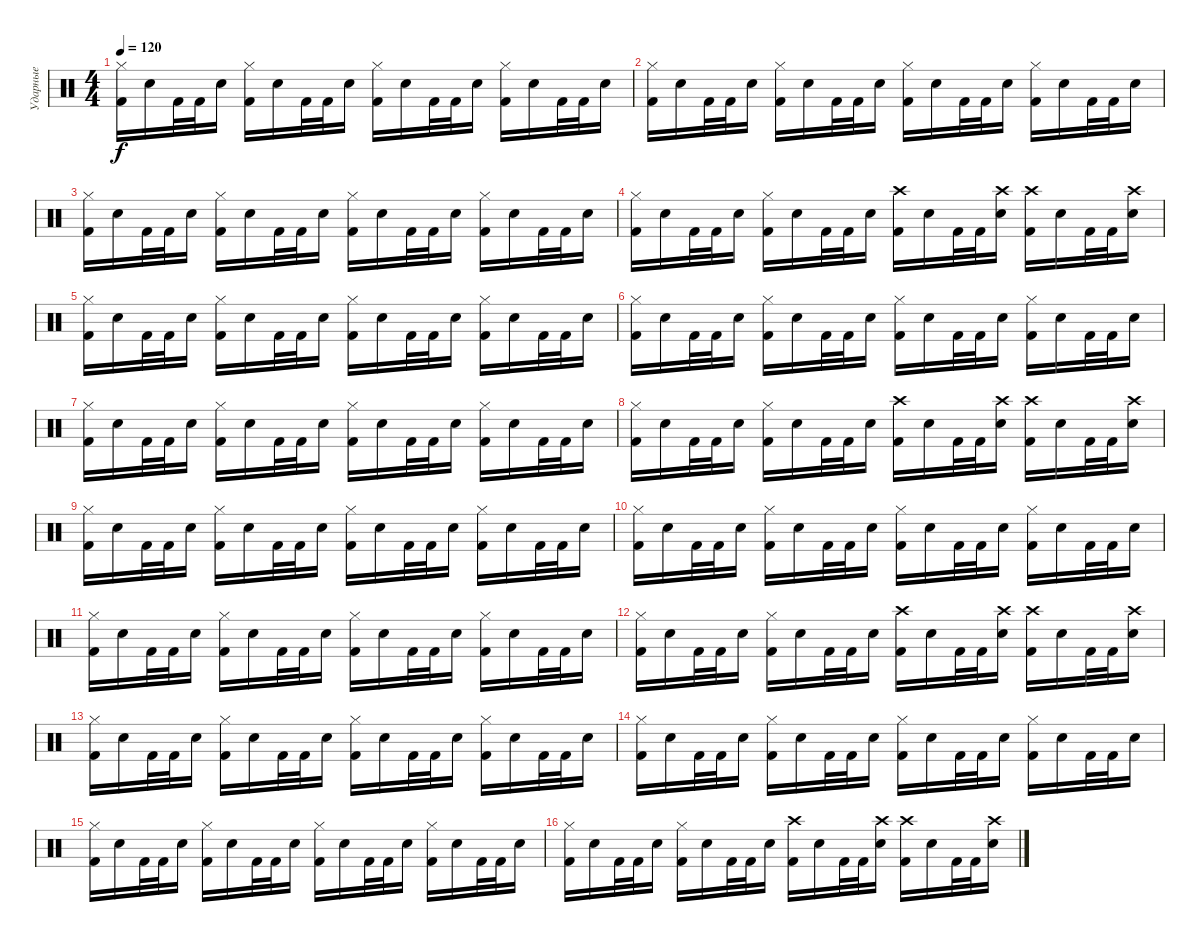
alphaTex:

\track ("Ударные" "Ударные") {instrument percussion}
\staff {score}
\articulation defaults
\ts (4 4)
\tempo 120
\clef neutral
\ks c
("Hi-Hat (closed)" "Kick (hit) 2").16{dy f} "Electric Snare (hit)".16 "Kick (hit) 2".32 "Kick (hit) 2".32 "Electric Snare (hit)".16 ("Hi-Hat (closed)" "Kick (hit) 2").16 "Electric Snare (hit)".16 "Kick (hit) 2".32 "Kick (hit) 2".32 "Electric Snare (hit)".16 ("Hi-Hat (closed)" "Kick (hit) 2").16 "Electric Snare (hit)".16 "Kick (hit) 2".32 "Kick (hit) 2".32 "Electric Snare (hit)".16 ("Hi-Hat (closed)" "Kick (hit) 2").16 "Electric Snare (hit)".16 "Kick (hit) 2".32 "Kick (hit) 2".32 "Electric Snare (hit)".16 |
("Hi-Hat (closed)" "Kick (hit) 2").16 "Electric Snare (hit)".16 "Kick (hit) 2".32 "Kick (hit) 2".32 "Electric Snare (hit)".16 ("Hi-Hat (closed)" "Kick (hit) 2").16 "Electric Snare (hit)".16 "Kick (hit) 2".32 "Kick (hit) 2".32 "Electric Snare (hit)".16 ("Hi-Hat (closed)" "Kick (hit) 2").16 "Electric Snare (hit)".16 "Kick (hit) 2".32 "Kick (hit) 2".32 "Electric Snare (hit)".16 ("Hi-Hat (closed)" "Kick (hit) 2").16 "Electric Snare (hit)".16 "Kick (hit) 2".32 "Kick (hit) 2".32 "Electric Snare (hit)".16 |
("Hi-Hat (closed)" "Kick (hit) 2").16 "Electric Snare (hit)".16 "Kick (hit) 2".32 "Kick (hit) 2".32 "Electric Snare (hit)".16 ("Hi-Hat (closed)" "Kick (hit) 2").16 "Electric Snare (hit)".16 "Kick (hit) 2".32 "Kick (hit) 2".32 "Electric Snare (hit)".16 ("Hi-Hat (closed)" "Kick (hit) 2").16 "Electric Snare (hit)".16 "Kick (hit) 2".32 "Kick (hit) 2".32 "Electric Snare (hit)".16 ("Hi-Hat (closed)" "Kick (hit) 2").16 "Electric Snare (hit)".16 "Kick (hit) 2".32 "Kick (hit) 2".32 "Electric Snare (hit)".16 |
("Hi-Hat (closed)" "Kick (hit) 2").16 "Electric Snare (hit)".16 "Kick (hit) 2".32 "Kick (hit) 2".32 "Electric Snare (hit)".16 ("Hi-Hat (closed)" "Kick (hit) 2").16 "Electric Snare (hit)".16 "Kick (hit) 2".32 "Kick (hit) 2".32 "Electric Snare (hit)".16 ("Crash high (hit)" "Kick (hit) 2").16 "Electric Snare (hit)".16 "Kick (hit) 2".32 "Kick (hit) 2".32 ("Crash high (hit)" "Electric Snare (hit)").16 ("Crash high (hit)" "Kick (hit) 2").16 "Electric Snare (hit)".16 "Kick (hit) 2".32 "Kick (hit) 2".32 ("Crash high (hit)" "Electric Snare (hit)").16 |
("Hi-Hat (closed)" "Kick (hit) 2").16 "Electric Snare (hit)".16 "Kick (hit) 2".32 "Kick (hit) 2".32 "Electric Snare (hit)".16 ("Hi-Hat (closed)" "Kick (hit) 2").16 "Electric Snare (hit)".16 "Kick (hit) 2".32 "Kick (hit) 2".32 "Electric Snare (hit)".16 ("Hi-Hat (closed)" "Kick (hit) 2").16 "Electric Snare (hit)".16 "Kick (hit) 2".32 "Kick (hit) 2".32 "Electric Snare (hit)".16 ("Hi-Hat (closed)" "Kick (hit) 2").16 "Electric Snare (hit)".16 "Kick (hit) 2".32 "Kick (hit) 2".32 "Electric Snare (hit)".16 |
("Hi-Hat (closed)" "Kick (hit) 2").16 "Electric Snare (hit)".16 "Kick (hit) 2".32 "Kick (hit) 2".32 "Electric Snare (hit)".16 ("Hi-Hat (closed)" "Kick (hit) 2").16 "Electric Snare (hit)".16 "Kick (hit) 2".32 "Kick (hit) 2".32 "Electric Snare (hit)".16 ("Hi-Hat (closed)" "Kick (hit) 2").16 "Electric Snare (hit)".16 "Kick (hit) 2".32 "Kick (hit) 2".32 "Electric Snare (hit)".16 ("Hi-Hat (closed)" "Kick (hit) 2").16 "Electric Snare (hit)".16 "Kick (hit) 2".32 "Kick (hit) 2".32 "Electric Snare (hit)".16 |
("Hi-Hat (closed)" "Kick (hit) 2").16 "Electric Snare (hit)".16 "Kick (hit) 2".32 "Kick (hit) 2".32 "Electric Snare (hit)".16 ("Hi-Hat (closed)" "Kick (hit) 2").16 "Electric Snare (hit)".16 "Kick (hit) 2".32 "Kick (hit) 2".32 "Electric Snare (hit)".16 ("Hi-Hat (closed)" "Kick (hit) 2").16 "Electric Snare (hit)".16 "Kick (hit) 2".32 "Kick (hit) 2".32 "Electric Snare (hit)".16 ("Hi-Hat (closed)" "Kick (hit) 2").16 "Electric Snare (hit)".16 "Kick (hit) 2".32 "Kick (hit) 2".32 "Electric Snare (hit)".16 |
("Hi-Hat (closed)" "Kick (hit) 2").16 "Electric Snare (hit)".16 "Kick (hit) 2".32 "Kick (hit) 2".32 "Electric Snare (hit)".16 ("Hi-Hat (closed)" "Kick (hit) 2").16 "Electric Snare (hit)".16 "Kick (hit) 2".32 "Kick (hit) 2".32 "Electric Snare (hit)".16 ("Crash high (hit)" "Kick (hit) 2").16 "Electric Snare (hit)".16 "Kick (hit) 2".32 "Kick (hit) 2".32 ("Crash high (hit)" "Electric Snare (hit)").16 ("Crash high (hit)" "Kick (hit) 2").16 "Electric Snare (hit)".16 "Kick (hit) 2".32 "Kick (hit) 2".32 ("Crash high (hit)" "Electric Snare (hit)").16 |
("Hi-Hat (closed)" "Kick (hit) 2").16 "Electric Snare (hit)".16 "Kick (hit) 2".32 "Kick (hit) 2".32 "Electric Snare (hit)".16 ("Hi-Hat (closed)" "Kick (hit) 2").16 "Electric Snare (hit)".16 "Kick (hit) 2".32 "Kick (hit) 2".32 "Electric Snare (hit)".16 ("Hi-Hat (closed)" "Kick (hit) 2").16 "Electric Snare (hit)".16 "Kick (hit) 2".32 "Kick (hit) 2".32 "Electric Snare (hit)".16 ("Hi-Hat (closed)" "Kick (hit) 2").16 "Electric Snare (hit)".16 "Kick (hit) 2".32 "Kick (hit) 2".32 "Electric Snare (hit)".16 |
("Hi-Hat (closed)" "Kick (hit) 2").16 "Electric Snare (hit)".16 "Kick (hit) 2".32 "Kick (hit) 2".32 "Electric Snare (hit)".16 ("Hi-Hat (closed)" "Kick (hit) 2").16 "Electric Snare (hit)".16 "Kick (hit) 2".32 "Kick (hit) 2".32 "Electric Snare (hit)".16 ("Hi-Hat (closed)" "Kick (hit) 2").16 "Electric Snare (hit)".16 "Kick (hit) 2".32 "Kick (hit) 2".32 "Electric Snare (hit)".16 ("Hi-Hat (closed)" "Kick (hit) 2").16 "Electric Snare (hit)".16 "Kick (hit) 2".32 "Kick (hit) 2".32 "Electric Snare (hit)".16 |
("Hi-Hat (closed)" "Kick (hit) 2").16 "Electric Snare (hit)".16 "Kick (hit) 2".32 "Kick (hit) 2".32 "Electric Snare (hit)".16 ("Hi-Hat (closed)" "Kick (hit) 2").16 "Electric Snare (hit)".16 "Kick (hit) 2".32 "Kick (hit) 2".32 "Electric Snare (hit)".16 ("Hi-Hat (closed)" "Kick (hit) 2").16 "Electric Snare (hit)".16 "Kick (hit) 2".32 "Kick (hit) 2".32 "Electric Snare (hit)".16 ("Hi-Hat (closed)" "Kick (hit) 2").16 "Electric Snare (hit)".16 "Kick (hit) 2".32 "Kick (hit) 2".32 "Electric Snare (hit)".16 |
("Hi-Hat (closed)" "Kick (hit) 2").16 "Electric Snare (hit)".16 "Kick (hit) 2".32 "Kick (hit) 2".32 "Electric Snare (hit)".16 ("Hi-Hat (closed)" "Kick (hit) 2").16 "Electric Snare (hit)".16 "Kick (hit) 2".32 "Kick (hit) 2".32 "Electric Snare (hit)".16 ("Crash high (hit)" "Kick (hit) 2").16 "Electric Snare (hit)".16 "Kick (hit) 2".32 "Kick (hit) 2".32 ("Crash high (hit)" "Electric Snare (hit)").16 ("Crash high (hit)" "Kick (hit) 2").16 "Electric Snare (hit)".16 "Kick (hit) 2".32 "Kick (hit) 2".32 ("Crash high (hit)" "Electric Snare (hit)").16 |
("Hi-Hat (closed)" "Kick (hit) 2").16 "Electric Snare (hit)".16 "Kick (hit) 2".32 "Kick (hit) 2".32 "Electric Snare (hit)".16 ("Hi-Hat (closed)" "Kick (hit) 2").16 "Electric Snare (hit)".16 "Kick (hit) 2".32 "Kick (hit) 2".32 "Electric Snare (hit)".16 ("Hi-Hat (closed)" "Kick (hit) 2").16 "Electric Snare (hit)".16 "Kick (hit) 2".32 "Kick (hit) 2".32 "Electric Snare (hit)".16 ("Hi-Hat (closed)" "Kick (hit) 2").16 "Electric Snare (hit)".16 "Kick (hit) 2".32 "Kick (hit) 2".32 "Electric Snare (hit)".16 |
("Hi-Hat (closed)" "Kick (hit) 2").16 "Electric Snare (hit)".16 "Kick (hit) 2".32 "Kick (hit) 2".32 "Electric Snare (hit)".16 ("Hi-Hat (closed)" "Kick (hit) 2").16 "Electric Snare (hit)".16 "Kick (hit) 2".32 "Kick (hit) 2".32 "Electric Snare (hit)".16 ("Hi-Hat (closed)" "Kick (hit) 2").16 "Electric Snare (hit)".16 "Kick (hit) 2".32 "Kick (hit) 2".32 "Electric Snare (hit)".16 ("Hi-Hat (closed)" "Kick (hit) 2").16 "Electric Snare (hit)".16 "Kick (hit) 2".32 "Kick (hit) 2".32 "Electric Snare (hit)".16 |
("Hi-Hat (closed)" "Kick (hit) 2").16 "Electric Snare (hit)".16 "Kick (hit) 2".32 "Kick (hit) 2".32 "Electric Snare (hit)".16 ("Hi-Hat (closed)" "Kick (hit) 2").16 "Electric Snare (hit)".16 "Kick (hit) 2".32 "Kick (hit) 2".32 "Electric Snare (hit)".16 ("Hi-Hat (closed)" "Kick (hit) 2").16 "Electric Snare (hit)".16 "Kick (hit) 2".32 "Kick (hit) 2".32 "Electric Snare (hit)".16 ("Hi-Hat (closed)" "Kick (hit) 2").16 "Electric Snare (hit)".16 "Kick (hit) 2".32 "Kick (hit) 2".32 "Electric Snare (hit)".16 |
("Hi-Hat (closed)" "Kick (hit) 2").16 "Electric Snare (hit)".16 "Kick (hit) 2".32 "Kick (hit) 2".32 "Electric Snare (hit)".16 ("Hi-Hat (closed)" "Kick (hit) 2").16 "Electric Snare (hit)".16 "Kick (hit) 2".32 "Kick (hit) 2".32 "Electric Snare (hit)".16 ("Crash high (hit)" "Kick (hit) 2").16 "Electric Snare (hit)".16 "Kick (hit) 2".32 "Kick (hit) 2".32 ("Crash high (hit)" "Electric Snare (hit)").16 ("Crash high (hit)" "Kick (hit) 2").16 "Electric Snare (hit)".16 "Kick (hit) 2".32 "Kick (hit) 2".32 ("Crash high (hit)" "Electric Snare (hit)").16
